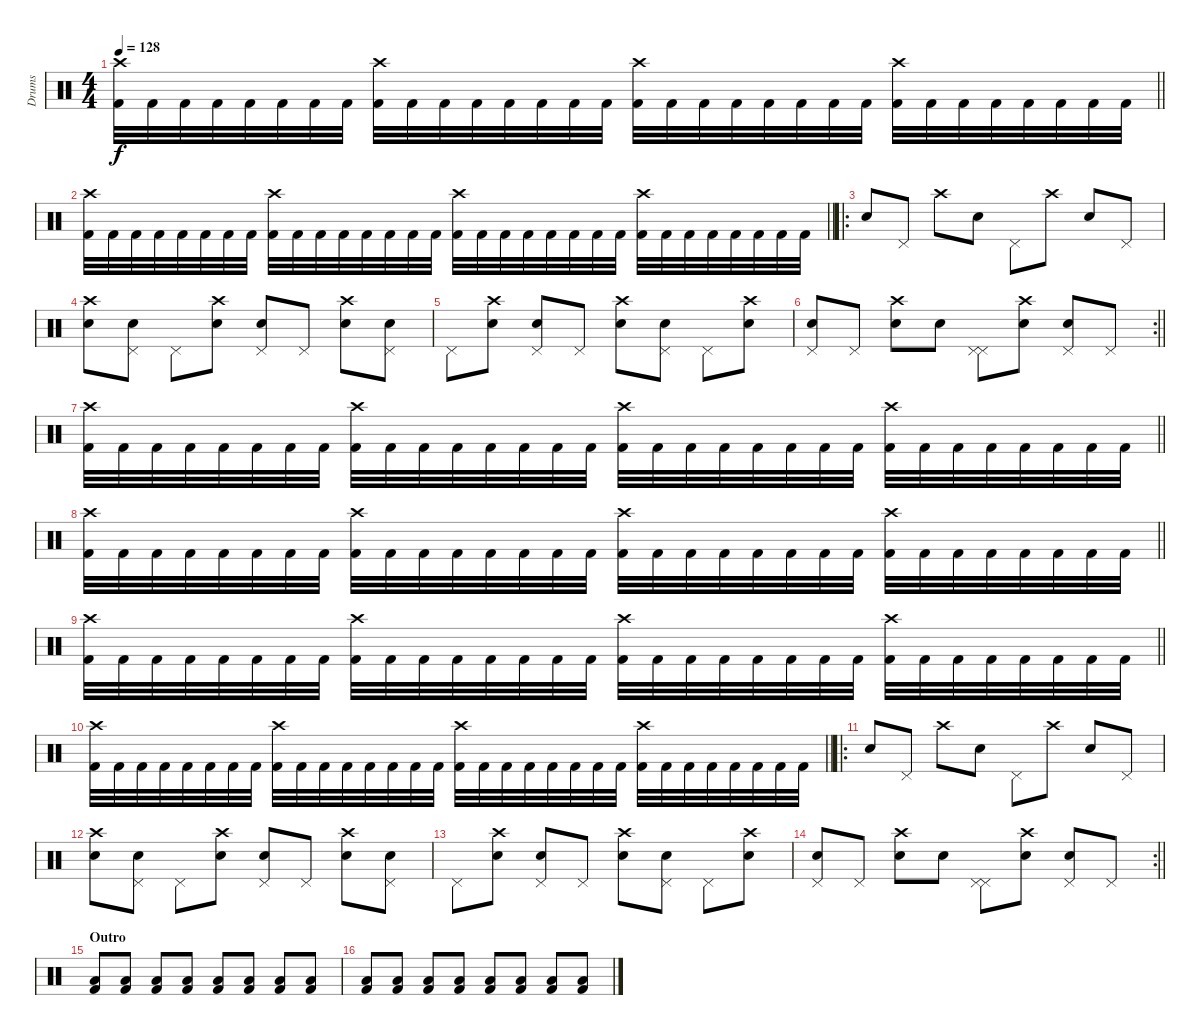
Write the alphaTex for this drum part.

\track ("Drums" "Drums") {instrument percussion}
\staff {score}
\articulation defaults
\ts (4 4)
\tempo 128
\clef neutral
\barLineRight lightlight
\ks c
("Kick (hit) 2" "Crash high (hit)").32{dy f} "Kick (hit) 2".32 "Kick (hit) 2".32 "Kick (hit) 2".32 "Kick (hit) 2".32 "Kick (hit) 2".32 "Kick (hit) 2".32 "Kick (hit) 2".32 ("Kick (hit) 2" "Crash high (hit)").32 "Kick (hit) 2".32 "Kick (hit) 2".32 "Kick (hit) 2".32 "Kick (hit) 2".32 "Kick (hit) 2".32 "Kick (hit) 2".32 "Kick (hit) 2".32 ("Kick (hit) 2" "Crash high (hit)").32 "Kick (hit) 2".32 "Kick (hit) 2".32 "Kick (hit) 2".32 "Kick (hit) 2".32 "Kick (hit) 2".32 "Kick (hit) 2".32 "Kick (hit) 2".32 ("Kick (hit) 2" "Crash high (hit)").32 "Kick (hit) 2".32 "Kick (hit) 2".32 "Kick (hit) 2".32 "Kick (hit) 2".32 "Kick (hit) 2".32 "Kick (hit) 2".32 "Kick (hit) 2".32 |
\barLineRight lightlight
("Kick (hit) 2" "Crash high (hit)").32 "Kick (hit) 2".32 "Kick (hit) 2".32 "Kick (hit) 2".32 "Kick (hit) 2".32 "Kick (hit) 2".32 "Kick (hit) 2".32 "Kick (hit) 2".32 ("Kick (hit) 2" "Crash high (hit)").32 "Kick (hit) 2".32 "Kick (hit) 2".32 "Kick (hit) 2".32 "Kick (hit) 2".32 "Kick (hit) 2".32 "Kick (hit) 2".32 "Kick (hit) 2".32 ("Kick (hit) 2" "Crash high (hit)").32 "Kick (hit) 2".32 "Kick (hit) 2".32 "Kick (hit) 2".32 "Kick (hit) 2".32 "Kick (hit) 2".32 "Kick (hit) 2".32 "Kick (hit) 2".32 ("Kick (hit) 2" "Crash high (hit)").32 "Kick (hit) 2".32 "Kick (hit) 2".32 "Kick (hit) 2".32 "Kick (hit) 2".32 "Kick (hit) 2".32 "Kick (hit) 2".32 "Kick (hit) 2".32 |
\ro "Electric Snare (hit)".8 "Pedal Hi-Hat (hit)".8 "Crash high (hit)".8 "Electric Snare (hit)".8 "Pedal Hi-Hat (hit)".8 "Crash high (hit)".8 "Electric Snare (hit)".8 "Pedal Hi-Hat (hit)".8
|
("Crash high (hit)" "Electric Snare (hit)").8 ("Electric Snare (hit)" "Pedal Hi-Hat (hit)").8 "Pedal Hi-Hat (hit)".8 ("Crash high (hit)" "Electric Snare (hit)").8 ("Electric Snare (hit)" "Pedal Hi-Hat (hit)").8 "Pedal Hi-Hat (hit)".8 ("Crash high (hit)" "Electric Snare (hit)").8 ("Electric Snare (hit)" "Pedal Hi-Hat (hit)").8 |
"Pedal Hi-Hat (hit)".8 ("Crash high (hit)" "Electric Snare (hit)").8 ("Electric Snare (hit)" "Pedal Hi-Hat (hit)").8 "Pedal Hi-Hat (hit)".8 ("Crash high (hit)" "Electric Snare (hit)").8 ("Electric Snare (hit)" "Pedal Hi-Hat (hit)").8 "Pedal Hi-Hat (hit)".8 ("Crash high (hit)" "Electric Snare (hit)").8 |
\rc 2
\barLineRight lightlight
("Electric Snare (hit)" "Pedal Hi-Hat (hit)").8 "Pedal Hi-Hat (hit)".8 ("Crash high (hit)" "Electric Snare (hit)").8 "Electric Snare (hit)".8 ("Pedal Hi-Hat (hit)" "Pedal Hi-Hat (hit)").8 ("Crash high (hit)" "Electric Snare (hit)").8 ("Electric Snare (hit)" "Pedal Hi-Hat (hit)").8 "Pedal Hi-Hat (hit)".8 |
\barLineRight lightlight
("Kick (hit) 2" "Crash high (hit)").32 "Kick (hit) 2".32 "Kick (hit) 2".32 "Kick (hit) 2".32 "Kick (hit) 2".32 "Kick (hit) 2".32 "Kick (hit) 2".32 "Kick (hit) 2".32 ("Kick (hit) 2" "Crash high (hit)").32 "Kick (hit) 2".32 "Kick (hit) 2".32 "Kick (hit) 2".32 "Kick (hit) 2".32 "Kick (hit) 2".32 "Kick (hit) 2".32 "Kick (hit) 2".32 ("Kick (hit) 2" "Crash high (hit)").32 "Kick (hit) 2".32 "Kick (hit) 2".32 "Kick (hit) 2".32 "Kick (hit) 2".32 "Kick (hit) 2".32 "Kick (hit) 2".32 "Kick (hit) 2".32 ("Kick (hit) 2" "Crash high (hit)").32 "Kick (hit) 2".32 "Kick (hit) 2".32 "Kick (hit) 2".32 "Kick (hit) 2".32 "Kick (hit) 2".32 "Kick (hit) 2".32 "Kick (hit) 2".32 |
\barLineRight lightlight
("Kick (hit) 2" "Crash high (hit)").32 "Kick (hit) 2".32 "Kick (hit) 2".32 "Kick (hit) 2".32 "Kick (hit) 2".32 "Kick (hit) 2".32 "Kick (hit) 2".32 "Kick (hit) 2".32 ("Kick (hit) 2" "Crash high (hit)").32 "Kick (hit) 2".32 "Kick (hit) 2".32 "Kick (hit) 2".32 "Kick (hit) 2".32 "Kick (hit) 2".32 "Kick (hit) 2".32 "Kick (hit) 2".32 ("Kick (hit) 2" "Crash high (hit)").32 "Kick (hit) 2".32 "Kick (hit) 2".32 "Kick (hit) 2".32 "Kick (hit) 2".32 "Kick (hit) 2".32 "Kick (hit) 2".32 "Kick (hit) 2".32 ("Kick (hit) 2" "Crash high (hit)").32 "Kick (hit) 2".32 "Kick (hit) 2".32 "Kick (hit) 2".32 "Kick (hit) 2".32 "Kick (hit) 2".32 "Kick (hit) 2".32 "Kick (hit) 2".32 |
\barLineRight lightlight
("Kick (hit) 2" "Crash high (hit)").32 "Kick (hit) 2".32 "Kick (hit) 2".32 "Kick (hit) 2".32 "Kick (hit) 2".32 "Kick (hit) 2".32 "Kick (hit) 2".32 "Kick (hit) 2".32 ("Kick (hit) 2" "Crash high (hit)").32 "Kick (hit) 2".32 "Kick (hit) 2".32 "Kick (hit) 2".32 "Kick (hit) 2".32 "Kick (hit) 2".32 "Kick (hit) 2".32 "Kick (hit) 2".32 ("Kick (hit) 2" "Crash high (hit)").32 "Kick (hit) 2".32 "Kick (hit) 2".32 "Kick (hit) 2".32 "Kick (hit) 2".32 "Kick (hit) 2".32 "Kick (hit) 2".32 "Kick (hit) 2".32 ("Kick (hit) 2" "Crash high (hit)").32 "Kick (hit) 2".32 "Kick (hit) 2".32 "Kick (hit) 2".32 "Kick (hit) 2".32 "Kick (hit) 2".32 "Kick (hit) 2".32 "Kick (hit) 2".32 |
\barLineRight lightlight
("Kick (hit) 2" "Crash high (hit)").32 "Kick (hit) 2".32 "Kick (hit) 2".32 "Kick (hit) 2".32 "Kick (hit) 2".32 "Kick (hit) 2".32 "Kick (hit) 2".32 "Kick (hit) 2".32 ("Kick (hit) 2" "Crash high (hit)").32 "Kick (hit) 2".32 "Kick (hit) 2".32 "Kick (hit) 2".32 "Kick (hit) 2".32 "Kick (hit) 2".32 "Kick (hit) 2".32 "Kick (hit) 2".32 ("Kick (hit) 2" "Crash high (hit)").32 "Kick (hit) 2".32 "Kick (hit) 2".32 "Kick (hit) 2".32 "Kick (hit) 2".32 "Kick (hit) 2".32 "Kick (hit) 2".32 "Kick (hit) 2".32 ("Kick (hit) 2" "Crash high (hit)").32 "Kick (hit) 2".32 "Kick (hit) 2".32 "Kick (hit) 2".32 "Kick (hit) 2".32 "Kick (hit) 2".32 "Kick (hit) 2".32 "Kick (hit) 2".32 |
\ro "Electric Snare (hit)".8 "Pedal Hi-Hat (hit)".8 "Crash high (hit)".8 "Electric Snare (hit)".8 "Pedal Hi-Hat (hit)".8 "Crash high (hit)".8 "Electric Snare (hit)".8 "Pedal Hi-Hat (hit)".8
|
("Crash high (hit)" "Electric Snare (hit)").8 ("Electric Snare (hit)" "Pedal Hi-Hat (hit)").8 "Pedal Hi-Hat (hit)".8 ("Crash high (hit)" "Electric Snare (hit)").8 ("Electric Snare (hit)" "Pedal Hi-Hat (hit)").8 "Pedal Hi-Hat (hit)".8 ("Crash high (hit)" "Electric Snare (hit)").8 ("Electric Snare (hit)" "Pedal Hi-Hat (hit)").8 |
"Pedal Hi-Hat (hit)".8 ("Crash high (hit)" "Electric Snare (hit)").8 ("Electric Snare (hit)" "Pedal Hi-Hat (hit)").8 "Pedal Hi-Hat (hit)".8 ("Crash high (hit)" "Electric Snare (hit)").8 ("Electric Snare (hit)" "Pedal Hi-Hat (hit)").8 "Pedal Hi-Hat (hit)".8 ("Crash high (hit)" "Electric Snare (hit)").8 |
\rc 2
\barLineRight lightlight
("Electric Snare (hit)" "Pedal Hi-Hat (hit)").8 "Pedal Hi-Hat (hit)".8 ("Crash high (hit)" "Electric Snare (hit)").8 "Electric Snare (hit)".8 ("Pedal Hi-Hat (hit)" "Pedal Hi-Hat (hit)").8 ("Crash high (hit)" "Electric Snare (hit)").8 ("Electric Snare (hit)" "Pedal Hi-Hat (hit)").8 "Pedal Hi-Hat (hit)".8 |
\section ("" "Outro")
("Kick (hit) 2" "Low Tom (hit)").8 ("Kick (hit) 2" "Low Tom (hit)").8 ("Kick (hit) 2" "Low Tom (hit)").8 ("Kick (hit) 2" "Low Tom (hit)").8 ("Kick (hit) 2" "Low Tom (hit)").8 ("Kick (hit) 2" "Low Tom (hit)").8 ("Kick (hit) 2" "Low Tom (hit)").8 ("Kick (hit) 2" "Low Tom (hit)").8 |
("Kick (hit) 2" "Low Tom (hit)").8 ("Kick (hit) 2" "Low Tom (hit)").8 ("Kick (hit) 2" "Low Tom (hit)").8 ("Kick (hit) 2" "Low Tom (hit)").8 ("Kick (hit) 2" "Low Tom (hit)").8 ("Kick (hit) 2" "Low Tom (hit)").8 ("Kick (hit) 2" "Low Tom (hit)").8 ("Kick (hit) 2" "Low Tom (hit)").8
